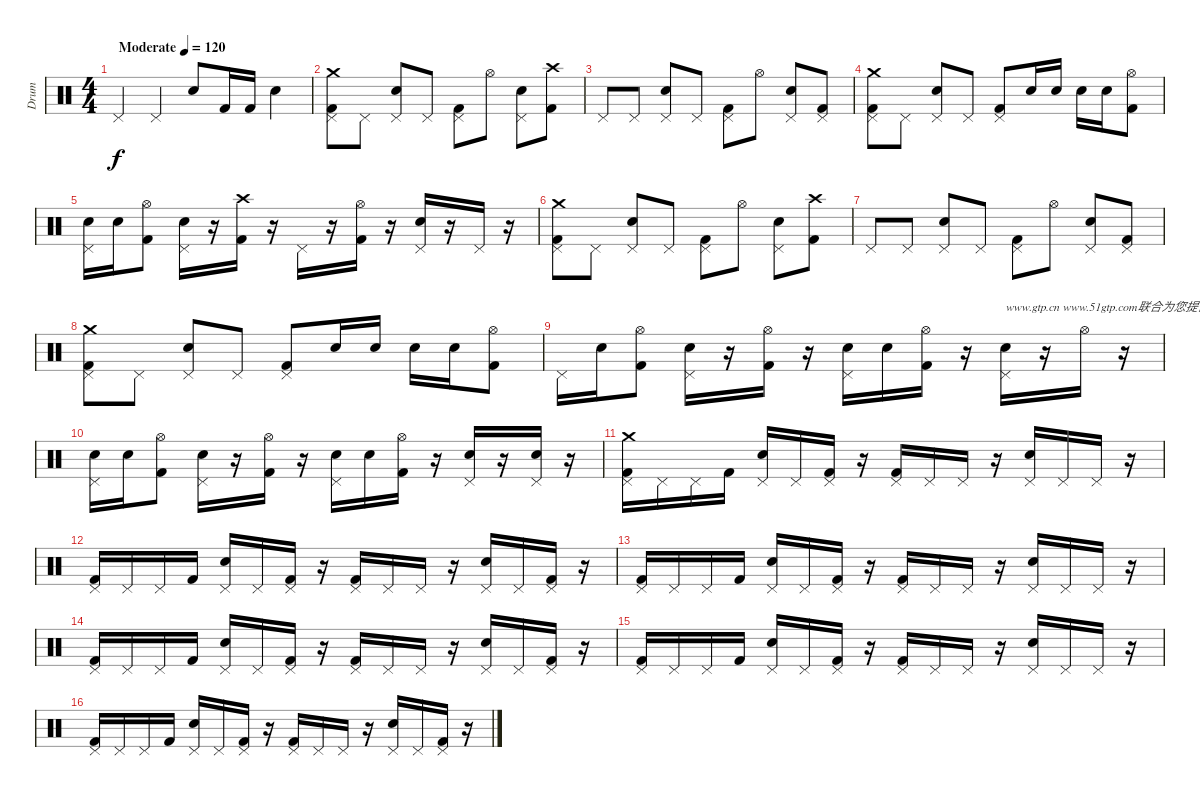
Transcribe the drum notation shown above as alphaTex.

\track ("Drum" "Drum") {instrument percussion}
\staff {score}
\articulation defaults
\ts (4 4)
\tempo (120 "Moderate")
\clef neutral
\ks c "Pedal Hi-Hat (hit)".4{dy f} "Pedal Hi-Hat (hit)".4 "Electric Snare (hit)".8 "Kick (hit) 2".16 "Kick (hit) 2".16 "Electric Snare (hit)".4
|
("Crash medium (hit)" "Pedal Hi-Hat (hit)" "Kick (hit) 2").8 "Pedal Hi-Hat (hit)".8 ("Pedal Hi-Hat (hit)" "Snare (hit) 2").8 "Pedal Hi-Hat (hit)".8 ("Pedal Hi-Hat (hit)" "Kick (hit) 2").8 "Hi-Hat (open)".8 ("Pedal Hi-Hat (hit)" "Snare (hit) 2").8 ("Crash high (hit)" "Kick (hit) 2").8 |
"Pedal Hi-Hat (hit)".8 "Pedal Hi-Hat (hit)".8 ("Pedal Hi-Hat (hit)" "Snare (hit) 2").8 "Pedal Hi-Hat (hit)".8 ("Pedal Hi-Hat (hit)" "Kick (hit) 2").8 "Hi-Hat (open)".8 ("Pedal Hi-Hat (hit)" "Snare (hit) 2").8 ("Pedal Hi-Hat (hit)" "Kick (hit) 2").8 |
("Crash medium (hit)" "Pedal Hi-Hat (hit)" "Kick (hit) 2").8 "Pedal Hi-Hat (hit)".8 ("Pedal Hi-Hat (hit)" "Snare (hit) 2").8 "Pedal Hi-Hat (hit)".8 ("Pedal Hi-Hat (hit)" "Kick (hit) 2").8 "Snare (hit) 2".16 "Snare (hit) 2".16 "Snare (hit) 2".16 "Snare (hit) 2".16 ("Hi-Hat (open)" "Kick (hit) 2").8 |
("Pedal Hi-Hat (hit)" "Snare (hit)").16 "Snare (hit) 2".16 ("Hi-Hat (open)" "Kick (hit) 2").8 ("Pedal Hi-Hat (hit)" "Snare (hit) 2").16 r.16 ("Crash high (hit)" "Kick (hit) 2").16 r.16 "Pedal Hi-Hat (hit)".16 r.16 ("Hi-Hat (open)" "Kick (hit) 2").16 r.16 ("Pedal Hi-Hat (hit)" "Snare (hit) 2").16 r.16 "Pedal Hi-Hat (hit)".16 r.16 |
("Crash medium (hit)" "Pedal Hi-Hat (hit)" "Kick (hit) 2").8 "Pedal Hi-Hat (hit)".8 ("Pedal Hi-Hat (hit)" "Snare (hit) 2").8 "Pedal Hi-Hat (hit)".8 ("Pedal Hi-Hat (hit)" "Kick (hit) 2").8 "Hi-Hat (open)".8 ("Pedal Hi-Hat (hit)" "Snare (hit) 2").8 ("Crash high (hit)" "Kick (hit) 2").8 |
"Pedal Hi-Hat (hit)".8 "Pedal Hi-Hat (hit)".8 ("Pedal Hi-Hat (hit)" "Snare (hit) 2").8 "Pedal Hi-Hat (hit)".8 ("Pedal Hi-Hat (hit)" "Kick (hit) 2").8 "Hi-Hat (open)".8 ("Pedal Hi-Hat (hit)" "Snare (hit) 2").8 ("Pedal Hi-Hat (hit)" "Kick (hit) 2").8 |
("Crash medium (hit)" "Pedal Hi-Hat (hit)" "Kick (hit) 2").8 "Pedal Hi-Hat (hit)".8 ("Pedal Hi-Hat (hit)" "Snare (hit) 2").8 "Pedal Hi-Hat (hit)".8 ("Pedal Hi-Hat (hit)" "Kick (hit) 2").8 "Snare (hit) 2".16 "Snare (hit) 2".16 "Snare (hit) 2".16 "Snare (hit) 2".16 ("Hi-Hat (open)" "Kick (hit) 2").8 |
"Pedal Hi-Hat (hit)".16 "Snare (hit) 2".16 ("Hi-Hat (open)" "Kick (hit) 2").8 ("Pedal Hi-Hat (hit)" "Snare (hit) 2").16 r.16 ("Hi-Hat (open)" "Kick (hit) 2").16 r.16 ("Pedal Hi-Hat (hit)" "Snare (hit) 2").16 "Snare (hit) 2".16 ("Hi-Hat (open)" "Kick (hit) 2").16 r.16 ("Pedal Hi-Hat (hit)" "Snare (hit) 2").16{txt "www.gtp.cn www.51gtp.com联合为您提供优秀的GTP!"} r.16 "Hi-Hat (open)".16 r.16 |
("Pedal Hi-Hat (hit)" "Snare (hit) 2").16 "Snare (hit) 2".16 ("Hi-Hat (open)" "Kick (hit) 2").8 ("Pedal Hi-Hat (hit)" "Snare (hit) 2").16 r.16 ("Hi-Hat (open)" "Kick (hit) 2").16 r.16 ("Pedal Hi-Hat (hit)" "Snare (hit) 2").16 "Snare (hit) 2".16 ("Hi-Hat (open)" "Kick (hit) 2").16 r.16 ("Pedal Hi-Hat (hit)" "Snare (hit) 2").16 r.16 ("Pedal Hi-Hat (hit)" "Snare (hit) 2").16 r.16 |
("Crash medium (hit)" "Pedal Hi-Hat (hit)" "Kick (hit) 2").16 "Pedal Hi-Hat (hit)".16 "Pedal Hi-Hat (hit)".16 "Kick (hit) 2".16 ("Pedal Hi-Hat (hit)" "Snare (hit) 2").16 "Pedal Hi-Hat (hit)".16 ("Pedal Hi-Hat (hit)" "Kick (hit) 2").16 r.16 ("Pedal Hi-Hat (hit)" "Kick (hit) 2").16 "Pedal Hi-Hat (hit)".16 "Pedal Hi-Hat (hit)".16 r.16 ("Pedal Hi-Hat (hit)" "Snare (hit) 2").16 "Pedal Hi-Hat (hit)".16 "Pedal Hi-Hat (hit)".16 r.16 |
("Pedal Hi-Hat (hit)" "Kick (hit) 2").16 "Pedal Hi-Hat (hit)".16 "Pedal Hi-Hat (hit)".16 "Kick (hit) 2".16 ("Pedal Hi-Hat (hit)" "Snare (hit) 2").16 "Pedal Hi-Hat (hit)".16 ("Pedal Hi-Hat (hit)" "Kick (hit) 2").16 r.16 ("Pedal Hi-Hat (hit)" "Kick (hit) 2").16 "Pedal Hi-Hat (hit)".16 "Pedal Hi-Hat (hit)".16 r.16 ("Pedal Hi-Hat (hit)" "Snare (hit) 2").16 "Pedal Hi-Hat (hit)".16 ("Pedal Hi-Hat (hit)" "Kick (hit) 2").16 r.16 |
("Pedal Hi-Hat (hit)" "Kick (hit) 2").16 "Pedal Hi-Hat (hit)".16 "Pedal Hi-Hat (hit)".16 "Kick (hit) 2".16 ("Pedal Hi-Hat (hit)" "Snare (hit) 2").16 "Pedal Hi-Hat (hit)".16 ("Pedal Hi-Hat (hit)" "Kick (hit) 2").16 r.16 ("Pedal Hi-Hat (hit)" "Kick (hit) 2").16 "Pedal Hi-Hat (hit)".16 "Pedal Hi-Hat (hit)".16 r.16 ("Pedal Hi-Hat (hit)" "Snare (hit) 2").16 "Pedal Hi-Hat (hit)".16 "Pedal Hi-Hat (hit)".16 r.16 |
("Pedal Hi-Hat (hit)" "Kick (hit) 2").16 "Pedal Hi-Hat (hit)".16 "Pedal Hi-Hat (hit)".16 "Kick (hit) 2".16 ("Pedal Hi-Hat (hit)" "Snare (hit) 2").16 "Pedal Hi-Hat (hit)".16 ("Pedal Hi-Hat (hit)" "Kick (hit) 2").16 r.16 ("Pedal Hi-Hat (hit)" "Kick (hit) 2").16 "Pedal Hi-Hat (hit)".16 "Pedal Hi-Hat (hit)".16 r.16 ("Pedal Hi-Hat (hit)" "Snare (hit) 2").16 "Pedal Hi-Hat (hit)".16 ("Pedal Hi-Hat (hit)" "Kick (hit) 2").16 r.16 |
("Pedal Hi-Hat (hit)" "Kick (hit) 2").16 "Pedal Hi-Hat (hit)".16 "Pedal Hi-Hat (hit)".16 "Kick (hit) 2".16 ("Pedal Hi-Hat (hit)" "Snare (hit) 2").16 "Pedal Hi-Hat (hit)".16 ("Pedal Hi-Hat (hit)" "Kick (hit) 2").16 r.16 ("Pedal Hi-Hat (hit)" "Kick (hit) 2").16 "Pedal Hi-Hat (hit)".16 "Pedal Hi-Hat (hit)".16 r.16 ("Pedal Hi-Hat (hit)" "Snare (hit) 2").16 "Pedal Hi-Hat (hit)".16 "Pedal Hi-Hat (hit)".16 r.16 |
("Pedal Hi-Hat (hit)" "Kick (hit) 2").16 "Pedal Hi-Hat (hit)".16 "Pedal Hi-Hat (hit)".16 "Kick (hit) 2".16 ("Pedal Hi-Hat (hit)" "Snare (hit) 2").16 "Pedal Hi-Hat (hit)".16 ("Pedal Hi-Hat (hit)" "Kick (hit) 2").16 r.16 ("Pedal Hi-Hat (hit)" "Kick (hit) 2").16 "Pedal Hi-Hat (hit)".16 "Pedal Hi-Hat (hit)".16 r.16 ("Pedal Hi-Hat (hit)" "Snare (hit) 2").16 "Pedal Hi-Hat (hit)".16 ("Pedal Hi-Hat (hit)" "Kick (hit) 2").16 r.16
